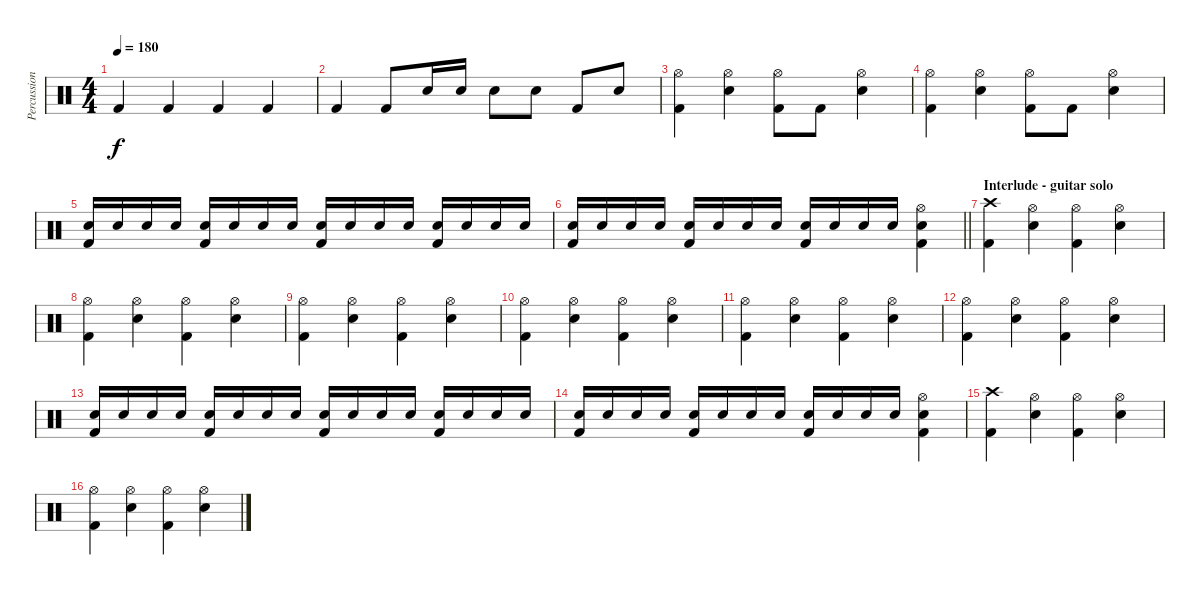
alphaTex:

\track ("Percussion" "Percussion") {instrument percussion}
\staff {score}
\articulation defaults
\ts (4 4)
\tempo 180
\clef neutral
\ks c "Kick (hit) 2".4{dy f} "Kick (hit) 2".4 "Kick (hit) 2".4 "Kick (hit) 2".4
|
"Kick (hit) 2".4 "Kick (hit) 2".8 "Snare (hit) 2".16 "Snare (hit) 2".16 "Snare (hit) 2".8 "Snare (hit) 2".8 "Kick (hit) 2".8 "Snare (hit) 2".8 |
("Hi-Hat (open)" "Kick (hit) 2").4 ("Hi-Hat (open)" "Snare (hit) 2").4 ("Hi-Hat (open)" "Kick (hit) 2").8 "Kick (hit) 2".8 ("Hi-Hat (open)" "Snare (hit) 2").4 |
("Hi-Hat (open)" "Kick (hit) 2").4 ("Hi-Hat (open)" "Snare (hit) 2").4 ("Hi-Hat (open)" "Kick (hit) 2").8 "Kick (hit) 2".8 ("Hi-Hat (open)" "Snare (hit) 2").4 |
("Snare (hit) 2" "Kick (hit) 2").16 "Snare (hit) 2".16 "Snare (hit) 2".16 "Snare (hit) 2".16 ("Snare (hit) 2" "Kick (hit) 2").16 "Snare (hit) 2".16 "Snare (hit) 2".16 "Snare (hit) 2".16 ("Snare (hit) 2" "Kick (hit) 2").16 "Snare (hit) 2".16 "Snare (hit) 2".16 "Snare (hit) 2".16 ("Snare (hit) 2" "Kick (hit) 2").16 "Snare (hit) 2".16 "Snare (hit) 2".16 "Snare (hit) 2".16 |
\barLineRight lightlight
("Snare (hit) 2" "Kick (hit) 2").16 "Snare (hit) 2".16 "Snare (hit) 2".16 "Snare (hit) 2".16 ("Snare (hit) 2" "Kick (hit) 2").16 "Snare (hit) 2".16 "Snare (hit) 2".16 "Snare (hit) 2".16 ("Snare (hit) 2" "Kick (hit) 2").16 "Snare (hit) 2".16 "Snare (hit) 2".16 "Snare (hit) 2".16 ("Hi-Hat (open)" "Snare (hit) 2" "Kick (hit) 2").4 |
\section ("" "Interlude - guitar solo")
("Crash high (hit)" "Kick (hit) 2").4 ("Hi-Hat (open)" "Snare (hit) 2").4 ("Hi-Hat (open)" "Kick (hit) 2").4 ("Hi-Hat (open)" "Snare (hit) 2").4 |
("Hi-Hat (open)" "Kick (hit) 2").4 ("Hi-Hat (open)" "Snare (hit) 2").4 ("Hi-Hat (open)" "Kick (hit) 2").4 ("Hi-Hat (open)" "Snare (hit) 2").4 |
("Hi-Hat (open)" "Kick (hit) 2").4 ("Hi-Hat (open)" "Snare (hit) 2").4 ("Hi-Hat (open)" "Kick (hit) 2").4 ("Hi-Hat (open)" "Snare (hit) 2").4 |
("Hi-Hat (open)" "Kick (hit) 2").4 ("Hi-Hat (open)" "Snare (hit) 2").4 ("Hi-Hat (open)" "Kick (hit) 2").4 ("Hi-Hat (open)" "Snare (hit) 2").4 |
("Hi-Hat (open)" "Kick (hit) 2").4 ("Hi-Hat (open)" "Snare (hit) 2").4 ("Hi-Hat (open)" "Kick (hit) 2").4 ("Hi-Hat (open)" "Snare (hit) 2").4 |
("Hi-Hat (open)" "Kick (hit) 2").4 ("Hi-Hat (open)" "Snare (hit) 2").4 ("Hi-Hat (open)" "Kick (hit) 2").4 ("Hi-Hat (open)" "Snare (hit) 2").4 |
("Snare (hit) 2" "Kick (hit) 2").16 "Snare (hit) 2".16 "Snare (hit) 2".16 "Snare (hit) 2".16 ("Snare (hit) 2" "Kick (hit) 2").16 "Snare (hit) 2".16 "Snare (hit) 2".16 "Snare (hit) 2".16 ("Snare (hit) 2" "Kick (hit) 2").16 "Snare (hit) 2".16 "Snare (hit) 2".16 "Snare (hit) 2".16 ("Snare (hit) 2" "Kick (hit) 2").16 "Snare (hit) 2".16 "Snare (hit) 2".16 "Snare (hit) 2".16 |
("Snare (hit) 2" "Kick (hit) 2").16 "Snare (hit) 2".16 "Snare (hit) 2".16 "Snare (hit) 2".16 ("Snare (hit) 2" "Kick (hit) 2").16 "Snare (hit) 2".16 "Snare (hit) 2".16 "Snare (hit) 2".16 ("Snare (hit) 2" "Kick (hit) 2").16 "Snare (hit) 2".16 "Snare (hit) 2".16 "Snare (hit) 2".16 ("Hi-Hat (open)" "Snare (hit) 2" "Kick (hit) 2").4 |
("Crash high (hit)" "Kick (hit) 2").4 ("Hi-Hat (open)" "Snare (hit) 2").4 ("Hi-Hat (open)" "Kick (hit) 2").4 ("Hi-Hat (open)" "Snare (hit) 2").4 |
("Hi-Hat (open)" "Kick (hit) 2").4 ("Hi-Hat (open)" "Snare (hit) 2").4 ("Hi-Hat (open)" "Kick (hit) 2").4 ("Hi-Hat (open)" "Snare (hit) 2").4
